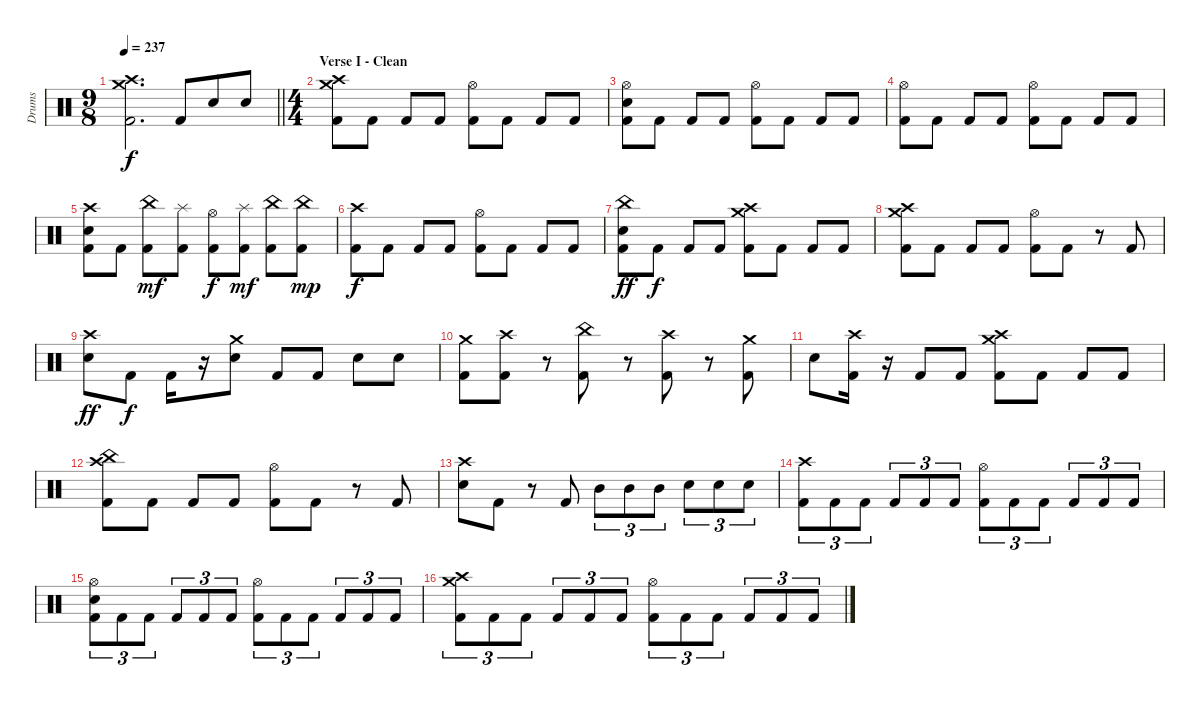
\track ("Drums" "Drums") {instrument percussion}
\staff {score}
\articulation defaults
\ts (9 8)
\tempo 237
\clef neutral
\barLineRight lightlight
\ks c
("Crash high (hit)" "Crash medium (hit)" "Kick (hit) 2").2{d dy f} "Kick (hit) 2".8 "Electric Snare (hit)".8 "Electric Snare (hit)".8 |
\ts (4 4)
\section ("" "Verse I - Clean")
("Crash high (hit)" "Crash medium (hit)" "Kick (hit) 2").8 "Kick (hit) 2".8 "Kick (hit) 2".8 "Kick (hit) 2".8 ("Hi-Hat (open)" "Kick (hit) 2").8 "Kick (hit) 2".8 "Kick (hit) 2".8 "Kick (hit) 2".8 |
("Hi-Hat (open)" "Electric Snare (hit)" "Kick (hit) 2").8 "Kick (hit) 2".8 "Kick (hit) 2".8 "Kick (hit) 2".8 ("Hi-Hat (open)" "Kick (hit) 2").8 "Kick (hit) 2".8 "Kick (hit) 2".8 "Kick (hit) 2".8 |
("Hi-Hat (open)" "Kick (hit) 2").8 "Kick (hit) 2".8 "Kick (hit) 2".8 "Kick (hit) 2".8 ("Hi-Hat (open)" "Kick (hit) 2").8 "Kick (hit) 2".8 "Kick (hit) 2".8 "Kick (hit) 2".8 |
("Crash high (hit)" "Electric Snare (hit)" "Kick (hit) 2").8 "Kick (hit) 2".8 ("China (hit)" "Kick (hit) 2").8{dy mf} ("Splash (hit)" "Kick (hit) 2").8 ("Hi-Hat (open)" "Kick (hit) 2").8{dy f} ("Splash (hit)" "Kick (hit) 2").8{dy mf} ("China (hit)" "Kick (hit) 2").8 ("China (hit)" "Kick (hit) 2").8{dy mp} |
("Crash high (hit)" "Kick (hit) 2").8{dy f} "Kick (hit) 2".8 "Kick (hit) 2".8 "Kick (hit) 2".8 ("Hi-Hat (open)" "Kick (hit) 2").8 "Kick (hit) 2".8 "Kick (hit) 2".8 "Kick (hit) 2".8 |
("China (hit)" "Electric Snare (hit)" "Kick (hit) 2").8{dy ff} "Kick (hit) 2".8{dy f} "Kick (hit) 2".8 "Kick (hit) 2".8 ("Crash high (hit)" "Crash medium (hit)" "Kick (hit) 2").8 "Kick (hit) 2".8 "Kick (hit) 2".8 "Kick (hit) 2".8 |
("Crash medium (hit)" "Crash high (hit)" "Kick (hit) 2").8 "Kick (hit) 2".8 "Kick (hit) 2".8 "Kick (hit) 2".8 ("Hi-Hat (open)" "Kick (hit) 2").8 "Kick (hit) 2".8 r.8 "Kick (hit) 2".8 |
("Crash high (hit)" "Electric Snare (hit)").8{dy ff} "Kick (hit) 2".8{dy f} "Kick (hit) 2".16 r.16 ("Crash medium (hit)" "Electric Snare (hit)").8 "Kick (hit) 2".8 "Kick (hit) 2".8 "Electric Snare (hit)".8 "Electric Snare (hit)".8 |
("Crash medium (hit)" "Kick (hit) 2").8 ("Crash high (hit)" "Kick (hit) 2").8 r.8 ("China (hit)" "Kick (hit) 2").8 r.8 ("Crash high (hit)" "Kick (hit) 2").8 r.8 ("Crash medium (hit)" "Kick (hit) 2").8 |
"Electric Snare (hit)".8 ("Crash high (hit)" "Kick (hit) 2").16 r.16 "Kick (hit) 2".8 "Kick (hit) 2".8 ("Crash high (hit)" "Crash medium (hit)" "Kick (hit) 2").8 "Kick (hit) 2".8 "Kick (hit) 2".8 "Kick (hit) 2".8 |
("Crash high (hit)" "China (hit)" "Kick (hit) 2").8 "Kick (hit) 2".8 "Kick (hit) 2".8 "Kick (hit) 2".8 ("Hi-Hat (open)" "Kick (hit) 2").8 "Kick (hit) 2".8 r.8 "Kick (hit) 2".8 |
("Crash high (hit)" "Electric Snare (hit)").8 "Kick (hit) 2".8 r.8 "Kick (hit) 2".8 "Mid Tom (hit)".8{tu (3 2)} "Mid Tom (hit)".8{tu (3 2)} "Mid Tom (hit)".8{tu (3 2)} "Electric Snare (hit)".8{tu (3 2)} "Electric Snare (hit)".8{tu (3 2)} "Electric Snare (hit)".8{tu (3 2)} |
("Crash high (hit)" "Kick (hit) 2").8{tu (3 2)} "Kick (hit) 2".8{tu (3 2)} "Kick (hit) 2".8{tu (3 2)} "Kick (hit) 2".8{tu (3 2)} "Kick (hit) 2".8{tu (3 2)} "Kick (hit) 2".8{tu (3 2)} ("Hi-Hat (open)" "Kick (hit) 2").8{tu (3 2)} "Kick (hit) 2".8{tu (3 2)} "Kick (hit) 2".8{tu (3 2)} "Kick (hit) 2".8{tu (3 2)} "Kick (hit) 2".8{tu (3 2)} "Kick (hit) 2".8{tu (3 2)} |
("Hi-Hat (open)" "Electric Snare (hit)" "Kick (hit) 2").8{tu (3 2)} "Kick (hit) 2".8{tu (3 2)} "Kick (hit) 2".8{tu (3 2)} "Kick (hit) 2".8{tu (3 2)} "Kick (hit) 2".8{tu (3 2)} "Kick (hit) 2".8{tu (3 2)} ("Hi-Hat (open)" "Kick (hit) 2").8{tu (3 2)} "Kick (hit) 2".8{tu (3 2)} "Kick (hit) 2".8{tu (3 2)} "Kick (hit) 2".8{tu (3 2)} "Kick (hit) 2".8{tu (3 2)} "Kick (hit) 2".8{tu (3 2)} |
("Crash high (hit)" "Crash medium (hit)" "Kick (hit) 2").8{tu (3 2)} "Kick (hit) 2".8{tu (3 2)} "Kick (hit) 2".8{tu (3 2)} "Kick (hit) 2".8{tu (3 2)} "Kick (hit) 2".8{tu (3 2)} "Kick (hit) 2".8{tu (3 2)} ("Hi-Hat (open)" "Kick (hit) 2").8{tu (3 2)} "Kick (hit) 2".8{tu (3 2)} "Kick (hit) 2".8{tu (3 2)} "Kick (hit) 2".8{tu (3 2)} "Kick (hit) 2".8{tu (3 2)} "Kick (hit) 2".8{tu (3 2)}
